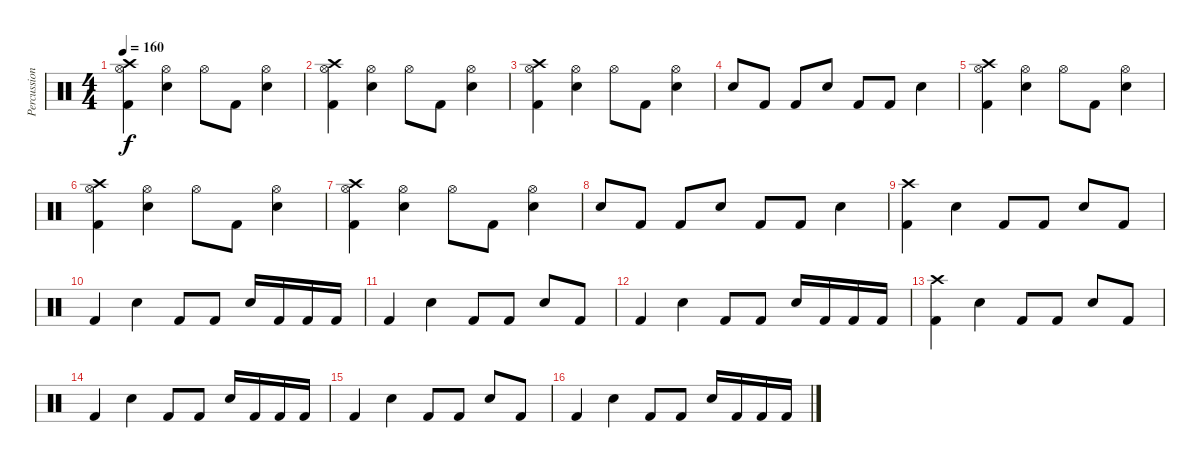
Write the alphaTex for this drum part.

\track ("Percussion" "Percussion") {instrument percussion}
\staff {score}
\articulation defaults
\ts (4 4)
\tempo 160
\clef neutral
\ks c
("Hi-Hat (open)" "Kick (hit) 2" "Crash high (hit)").4{dy f} ("Hi-Hat (open)" "Electric Snare (hit)").4 "Hi-Hat (open)".8 "Kick (hit) 2".8 ("Hi-Hat (open)" "Electric Snare (hit)").4 |
("Hi-Hat (open)" "Kick (hit) 2" "Crash high (hit)").4 ("Hi-Hat (open)" "Electric Snare (hit)").4 "Hi-Hat (open)".8 "Kick (hit) 2".8 ("Hi-Hat (open)" "Electric Snare (hit)").4 |
("Hi-Hat (open)" "Kick (hit) 2" "Crash high (hit)").4 ("Hi-Hat (open)" "Electric Snare (hit)").4 "Hi-Hat (open)".8 "Kick (hit) 2".8 ("Hi-Hat (open)" "Electric Snare (hit)").4 |
"Electric Snare (hit)".8 "Kick (hit) 2".8 "Kick (hit) 2".8 "Electric Snare (hit)".8 "Kick (hit) 2".8 "Kick (hit) 2".8 "Electric Snare (hit)".4 |
("Hi-Hat (open)" "Kick (hit) 2" "Crash high (hit)").4 ("Hi-Hat (open)" "Electric Snare (hit)").4 "Hi-Hat (open)".8 "Kick (hit) 2".8 ("Hi-Hat (open)" "Electric Snare (hit)").4 |
("Hi-Hat (open)" "Kick (hit) 2" "Crash high (hit)").4 ("Hi-Hat (open)" "Electric Snare (hit)").4 "Hi-Hat (open)".8 "Kick (hit) 2".8 ("Hi-Hat (open)" "Electric Snare (hit)").4 |
("Hi-Hat (open)" "Kick (hit) 2" "Crash high (hit)").4 ("Hi-Hat (open)" "Electric Snare (hit)").4 "Hi-Hat (open)".8 "Kick (hit) 2".8 ("Hi-Hat (open)" "Electric Snare (hit)").4 |
"Electric Snare (hit)".8 "Kick (hit) 2".8 "Kick (hit) 2".8 "Electric Snare (hit)".8 "Kick (hit) 2".8 "Kick (hit) 2".8 "Electric Snare (hit)".4 |
("Kick (hit) 2" "Crash high (hit)").4 "Electric Snare (hit)".4 "Kick (hit) 2".8 "Kick (hit) 2".8 "Electric Snare (hit)".8 "Kick (hit) 2".8 |
"Kick (hit) 2".4 "Electric Snare (hit)".4 "Kick (hit) 2".8 "Kick (hit) 2".8 "Electric Snare (hit)".16 "Kick (hit) 2".16 "Kick (hit) 2".16 "Kick (hit) 2".16 |
"Kick (hit) 2".4 "Electric Snare (hit)".4 "Kick (hit) 2".8 "Kick (hit) 2".8 "Electric Snare (hit)".8 "Kick (hit) 2".8 |
"Kick (hit) 2".4 "Electric Snare (hit)".4 "Kick (hit) 2".8 "Kick (hit) 2".8 "Electric Snare (hit)".16 "Kick (hit) 2".16 "Kick (hit) 2".16 "Kick (hit) 2".16 |
("Kick (hit) 2" "Crash high (hit)").4 "Electric Snare (hit)".4 "Kick (hit) 2".8 "Kick (hit) 2".8 "Electric Snare (hit)".8 "Kick (hit) 2".8 |
"Kick (hit) 2".4 "Electric Snare (hit)".4 "Kick (hit) 2".8 "Kick (hit) 2".8 "Electric Snare (hit)".16 "Kick (hit) 2".16 "Kick (hit) 2".16 "Kick (hit) 2".16 |
"Kick (hit) 2".4 "Electric Snare (hit)".4 "Kick (hit) 2".8 "Kick (hit) 2".8 "Electric Snare (hit)".8 "Kick (hit) 2".8 |
"Kick (hit) 2".4 "Electric Snare (hit)".4 "Kick (hit) 2".8 "Kick (hit) 2".8 "Electric Snare (hit)".16 "Kick (hit) 2".16 "Kick (hit) 2".16 "Kick (hit) 2".16
